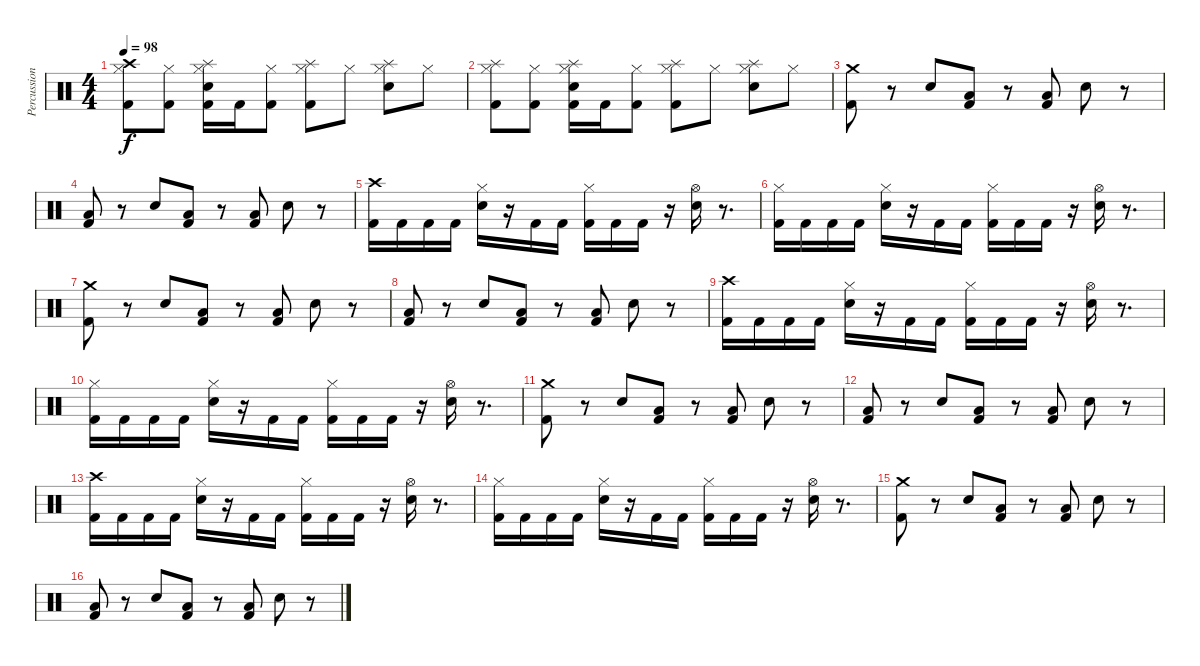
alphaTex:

\track ("Percussion" "Percussion") {instrument percussion}
\staff {score}
\articulation defaults
\ts (4 4)
\tempo 98
\clef neutral
\ks c
("Crash high (hit)" "Hi-Hat (closed)" "Kick (hit) 2").8{dy f} ("Hi-Hat (closed)" "Kick (hit) 2").8 ("Splash (hit)" "Hi-Hat (closed)" "Electric Snare (hit)" "Kick (hit) 2").16 "Kick (hit) 2".16 ("Hi-Hat (closed)" "Kick (hit) 2").8 ("Splash (hit)" "Hi-Hat (closed)" "Kick (hit) 2").8 "Hi-Hat (closed)".8 ("Splash (hit)" "Hi-Hat (closed)" "Electric Snare (hit)").8 "Hi-Hat (closed)".8 |
("Splash (hit)" "Hi-Hat (closed)" "Kick (hit) 2").8 ("Hi-Hat (closed)" "Kick (hit) 2").8 ("Splash (hit)" "Hi-Hat (closed)" "Electric Snare (hit)" "Kick (hit) 2").16 "Kick (hit) 2".16 ("Hi-Hat (closed)" "Kick (hit) 2").8 ("Splash (hit)" "Hi-Hat (closed)" "Kick (hit) 2").8 "Hi-Hat (closed)".8 ("Splash (hit)" "Hi-Hat (closed)" "Electric Snare (hit)").8 "Hi-Hat (closed)".8 |
("Crash medium (hit)" "Kick (hit) 2").8 r.8 "Electric Snare (hit)".8 ("Low Floor Tom (hit)" "Kick (hit) 2").8 r.8 ("Low Floor Tom (hit)" "Kick (hit) 2").8 "Electric Snare (hit)".8 r.8 |
("Low Floor Tom (hit)" "Kick (hit) 2").8 r.8 "Electric Snare (hit)".8 ("Low Floor Tom (hit)" "Kick (hit) 2").8 r.8 ("Low Floor Tom (hit)" "Kick (hit) 2").8 "Electric Snare (hit)".8 r.8 |
("Crash high (hit)" "Kick (hit) 2").16 "Kick (hit) 2".16 "Kick (hit) 2".16 "Kick (hit) 2".16 ("Hi-Hat (closed)" "Electric Snare (hit)").16 r.16 "Kick (hit) 2".16 "Kick (hit) 2".16 ("Hi-Hat (closed)" "Kick (hit) 2").16 "Kick (hit) 2".16 "Kick (hit) 2".16 r.16 ("Hi-Hat (open)" "Electric Snare (hit)").16 r.8{d} |
("Hi-Hat (closed)" "Kick (hit) 2").16 "Kick (hit) 2".16 "Kick (hit) 2".16 "Kick (hit) 2".16 ("Hi-Hat (closed)" "Electric Snare (hit)").16 r.16 "Kick (hit) 2".16 "Kick (hit) 2".16 ("Hi-Hat (closed)" "Kick (hit) 2").16 "Kick (hit) 2".16 "Kick (hit) 2".16 r.16 ("Hi-Hat (open)" "Electric Snare (hit)").16 r.8{d} |
("Crash medium (hit)" "Kick (hit) 2").8 r.8 "Electric Snare (hit)".8 ("Low Floor Tom (hit)" "Kick (hit) 2").8 r.8 ("Low Floor Tom (hit)" "Kick (hit) 2").8 "Electric Snare (hit)".8 r.8 |
("Low Floor Tom (hit)" "Kick (hit) 2").8 r.8 "Electric Snare (hit)".8 ("Low Floor Tom (hit)" "Kick (hit) 2").8 r.8 ("Low Floor Tom (hit)" "Kick (hit) 2").8 "Electric Snare (hit)".8 r.8 |
("Crash high (hit)" "Kick (hit) 2").16 "Kick (hit) 2".16 "Kick (hit) 2".16 "Kick (hit) 2".16 ("Hi-Hat (closed)" "Electric Snare (hit)").16 r.16 "Kick (hit) 2".16 "Kick (hit) 2".16 ("Hi-Hat (closed)" "Kick (hit) 2").16 "Kick (hit) 2".16 "Kick (hit) 2".16 r.16 ("Hi-Hat (open)" "Electric Snare (hit)").16 r.8{d} |
("Hi-Hat (closed)" "Kick (hit) 2").16 "Kick (hit) 2".16 "Kick (hit) 2".16 "Kick (hit) 2".16 ("Hi-Hat (closed)" "Electric Snare (hit)").16 r.16 "Kick (hit) 2".16 "Kick (hit) 2".16 ("Hi-Hat (closed)" "Kick (hit) 2").16 "Kick (hit) 2".16 "Kick (hit) 2".16 r.16 ("Hi-Hat (open)" "Electric Snare (hit)").16 r.8{d} |
("Crash medium (hit)" "Kick (hit) 2").8 r.8 "Electric Snare (hit)".8 ("Low Floor Tom (hit)" "Kick (hit) 2").8 r.8 ("Low Floor Tom (hit)" "Kick (hit) 2").8 "Electric Snare (hit)".8 r.8 |
("Low Floor Tom (hit)" "Kick (hit) 2").8 r.8 "Electric Snare (hit)".8 ("Low Floor Tom (hit)" "Kick (hit) 2").8 r.8 ("Low Floor Tom (hit)" "Kick (hit) 2").8 "Electric Snare (hit)".8 r.8 |
("Crash high (hit)" "Kick (hit) 2").16 "Kick (hit) 2".16 "Kick (hit) 2".16 "Kick (hit) 2".16 ("Hi-Hat (closed)" "Electric Snare (hit)").16 r.16 "Kick (hit) 2".16 "Kick (hit) 2".16 ("Hi-Hat (closed)" "Kick (hit) 2").16 "Kick (hit) 2".16 "Kick (hit) 2".16 r.16 ("Hi-Hat (open)" "Electric Snare (hit)").16 r.8{d} |
("Hi-Hat (closed)" "Kick (hit) 2").16 "Kick (hit) 2".16 "Kick (hit) 2".16 "Kick (hit) 2".16 ("Hi-Hat (closed)" "Electric Snare (hit)").16 r.16 "Kick (hit) 2".16 "Kick (hit) 2".16 ("Hi-Hat (closed)" "Kick (hit) 2").16 "Kick (hit) 2".16 "Kick (hit) 2".16 r.16 ("Hi-Hat (open)" "Electric Snare (hit)").16 r.8{d} |
("Crash medium (hit)" "Kick (hit) 2").8 r.8 "Electric Snare (hit)".8 ("Low Floor Tom (hit)" "Kick (hit) 2").8 r.8 ("Low Floor Tom (hit)" "Kick (hit) 2").8 "Electric Snare (hit)".8 r.8 |
("Low Floor Tom (hit)" "Kick (hit) 2").8 r.8 "Electric Snare (hit)".8 ("Low Floor Tom (hit)" "Kick (hit) 2").8 r.8 ("Low Floor Tom (hit)" "Kick (hit) 2").8 "Electric Snare (hit)".8 r.8
